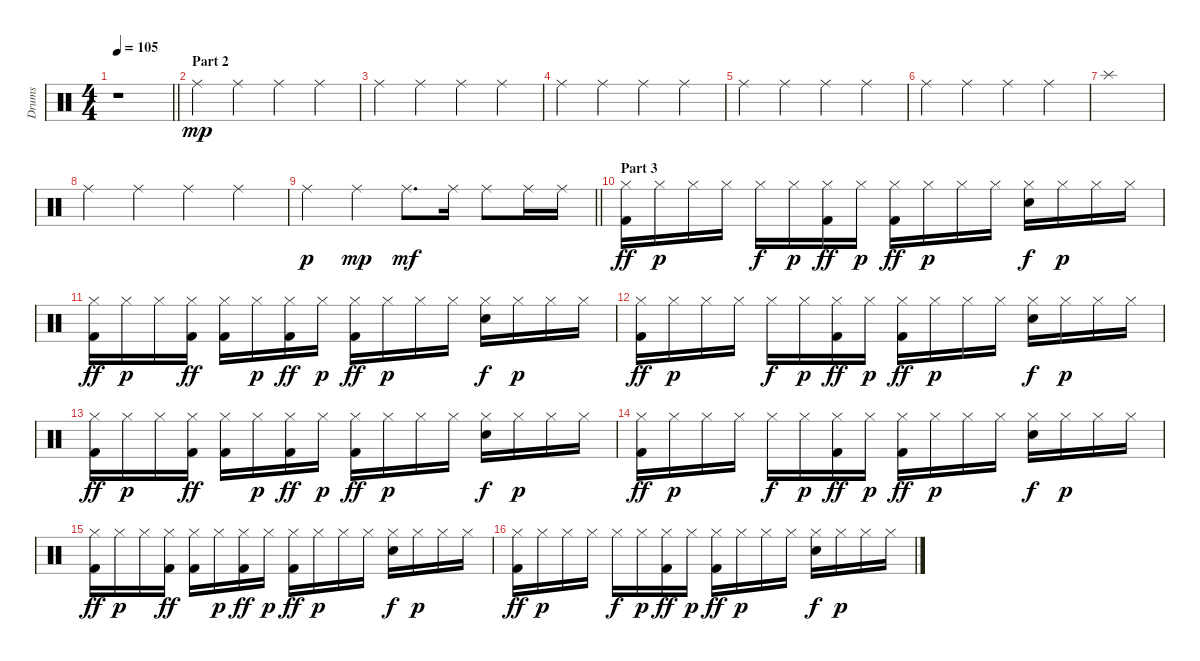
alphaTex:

\track ("Drums" "Drums") {instrument percussion}
\staff {score}
\articulation defaults
\ts (4 4)
\tempo 105
\clef neutral
\barLineRight lightlight
\ks c
r.1{dy mp} |
\section ("" "Part 2")
"Ride (middle)".4 "Ride (middle)".4 "Ride (middle)".4 "Ride (middle)".4 |
"Ride (middle)".4 "Ride (middle)".4 "Ride (middle)".4 "Ride (middle)".4 |
"Ride (middle)".4 "Ride (middle)".4 "Ride (middle)".4 "Ride (middle)".4 |
"Ride (middle)".4 "Ride (middle)".4 "Ride (middle)".4 "Ride (middle)".4 |
"Ride (middle)".4 "Ride (middle)".4 "Ride (middle)".4 "Ride (middle)".4 |
"Splash (hit)".1 |
"Ride (middle)".4 "Ride (middle)".4 "Ride (middle)".4 "Ride (middle)".4 |
\barLineRight lightlight "Ride (middle)".4{dy p} "Ride (middle)".4{dy mp} "Ride (middle)".8{d dy mf} "Ride (middle)".16 "Ride (middle)".8 "Ride (middle)".16 "Ride (middle)".16
|
\section ("" "Part 3")
("Hi-Hat (closed)" "Kick (hit) 2").16{dy ff} "Hi-Hat (closed)".16{dy p} "Hi-Hat (closed)".16 "Hi-Hat (closed)".16 "Hi-Hat (closed)".16{dy f} "Hi-Hat (closed)".16{dy p} ("Hi-Hat (closed)" "Kick (hit) 2").16{dy ff} "Hi-Hat (closed)".16{dy p} ("Hi-Hat (closed)" "Kick (hit) 2").16{dy ff} "Hi-Hat (closed)".16{dy p} "Hi-Hat (closed)".16 "Hi-Hat (closed)".16 ("Hi-Hat (closed)" "Electric Snare (hit)").16{dy f} "Hi-Hat (closed)".16{dy p} "Hi-Hat (closed)".16 "Hi-Hat (closed)".16 |
("Hi-Hat (closed)" "Kick (hit) 2").16{dy ff} "Hi-Hat (closed)".16{dy p} "Hi-Hat (closed)".16 ("Hi-Hat (closed)" "Kick (hit) 2").16{dy ff} ("Hi-Hat (closed)" "Kick (hit) 2").16 "Hi-Hat (closed)".16{dy p} ("Hi-Hat (closed)" "Kick (hit) 2").16{dy ff} "Hi-Hat (closed)".16{dy p} ("Hi-Hat (closed)" "Kick (hit) 2").16{dy ff} "Hi-Hat (closed)".16{dy p} "Hi-Hat (closed)".16 "Hi-Hat (closed)".16 ("Hi-Hat (closed)" "Electric Snare (hit)").16{dy f} "Hi-Hat (closed)".16{dy p} "Hi-Hat (closed)".16 "Hi-Hat (closed)".16 |
("Hi-Hat (closed)" "Kick (hit) 2").16{dy ff} "Hi-Hat (closed)".16{dy p} "Hi-Hat (closed)".16 "Hi-Hat (closed)".16 "Hi-Hat (closed)".16{dy f} "Hi-Hat (closed)".16{dy p} ("Hi-Hat (closed)" "Kick (hit) 2").16{dy ff} "Hi-Hat (closed)".16{dy p} ("Hi-Hat (closed)" "Kick (hit) 2").16{dy ff} "Hi-Hat (closed)".16{dy p} "Hi-Hat (closed)".16 "Hi-Hat (closed)".16 ("Hi-Hat (closed)" "Electric Snare (hit)").16{dy f} "Hi-Hat (closed)".16{dy p} "Hi-Hat (closed)".16 "Hi-Hat (closed)".16 |
("Hi-Hat (closed)" "Kick (hit) 2").16{dy ff} "Hi-Hat (closed)".16{dy p} "Hi-Hat (closed)".16 ("Hi-Hat (closed)" "Kick (hit) 2").16{dy ff} ("Hi-Hat (closed)" "Kick (hit) 2").16 "Hi-Hat (closed)".16{dy p} ("Hi-Hat (closed)" "Kick (hit) 2").16{dy ff} "Hi-Hat (closed)".16{dy p} ("Hi-Hat (closed)" "Kick (hit) 2").16{dy ff} "Hi-Hat (closed)".16{dy p} "Hi-Hat (closed)".16 "Hi-Hat (closed)".16 ("Hi-Hat (closed)" "Electric Snare (hit)").16{dy f} "Hi-Hat (closed)".16{dy p} "Hi-Hat (closed)".16 "Hi-Hat (closed)".16 |
("Hi-Hat (closed)" "Kick (hit) 2").16{dy ff} "Hi-Hat (closed)".16{dy p} "Hi-Hat (closed)".16 "Hi-Hat (closed)".16 "Hi-Hat (closed)".16{dy f} "Hi-Hat (closed)".16{dy p} ("Hi-Hat (closed)" "Kick (hit) 2").16{dy ff} "Hi-Hat (closed)".16{dy p} ("Hi-Hat (closed)" "Kick (hit) 2").16{dy ff} "Hi-Hat (closed)".16{dy p} "Hi-Hat (closed)".16 "Hi-Hat (closed)".16 ("Hi-Hat (closed)" "Electric Snare (hit)").16{dy f} "Hi-Hat (closed)".16{dy p} "Hi-Hat (closed)".16 "Hi-Hat (closed)".16 |
("Hi-Hat (closed)" "Kick (hit) 2").16{dy ff} "Hi-Hat (closed)".16{dy p} "Hi-Hat (closed)".16 ("Hi-Hat (closed)" "Kick (hit) 2").16{dy ff} ("Hi-Hat (closed)" "Kick (hit) 2").16 "Hi-Hat (closed)".16{dy p} ("Hi-Hat (closed)" "Kick (hit) 2").16{dy ff} "Hi-Hat (closed)".16{dy p} ("Hi-Hat (closed)" "Kick (hit) 2").16{dy ff} "Hi-Hat (closed)".16{dy p} "Hi-Hat (closed)".16 "Hi-Hat (closed)".16 ("Hi-Hat (closed)" "Electric Snare (hit)").16{dy f} "Hi-Hat (closed)".16{dy p} "Hi-Hat (closed)".16 "Hi-Hat (closed)".16 |
("Hi-Hat (closed)" "Kick (hit) 2").16{dy ff} "Hi-Hat (closed)".16{dy p} "Hi-Hat (closed)".16 "Hi-Hat (closed)".16 "Hi-Hat (closed)".16{dy f} "Hi-Hat (closed)".16{dy p} ("Hi-Hat (closed)" "Kick (hit) 2").16{dy ff} "Hi-Hat (closed)".16{dy p} ("Hi-Hat (closed)" "Kick (hit) 2").16{dy ff} "Hi-Hat (closed)".16{dy p} "Hi-Hat (closed)".16 "Hi-Hat (closed)".16 ("Hi-Hat (closed)" "Electric Snare (hit)").16{dy f} "Hi-Hat (closed)".16{dy p} "Hi-Hat (closed)".16 "Hi-Hat (closed)".16
